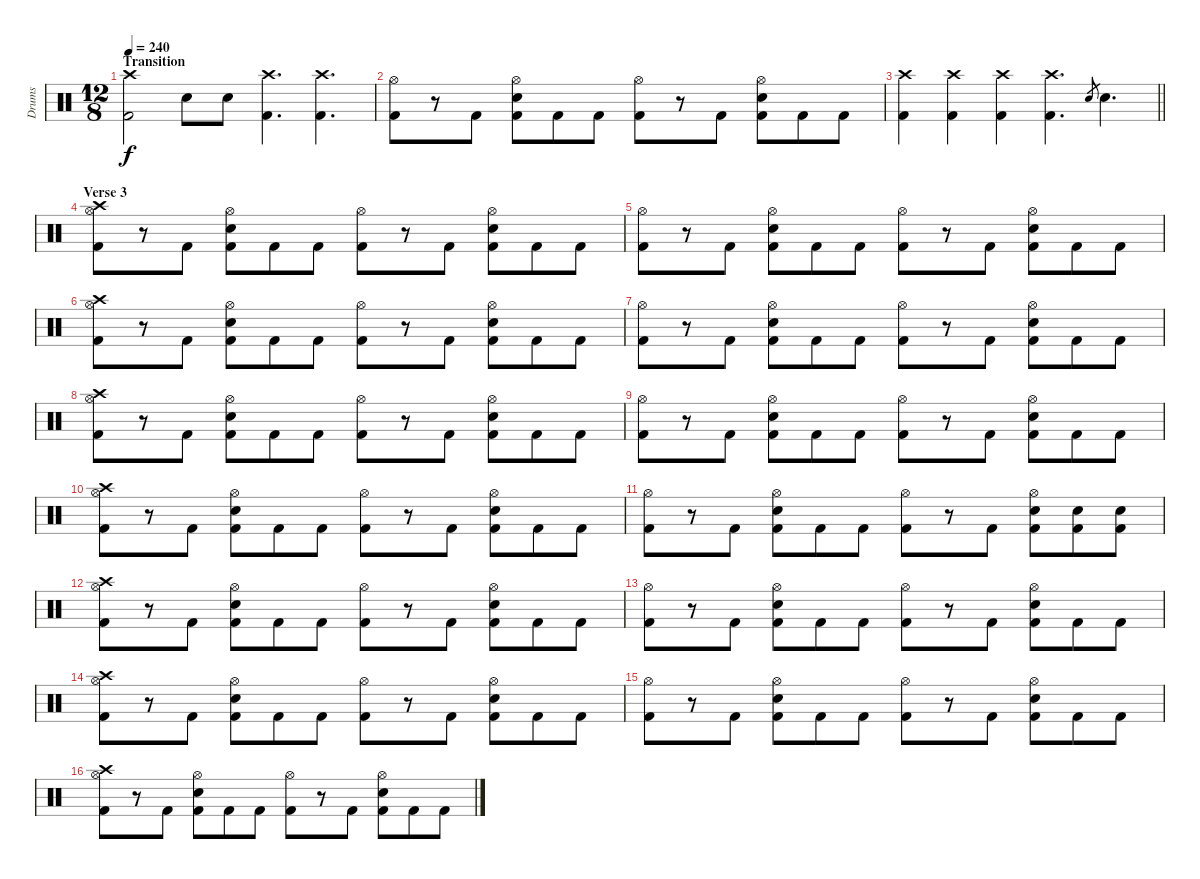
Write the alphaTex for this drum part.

\track ("Drums" "Drums") {instrument percussion}
\staff {score}
\articulation defaults
\ts (12 8)
\section ("" "Transition")
\tempo 240
\clef neutral
\ks c
("Crash high (hit)" "Kick (hit) 2").2{dy f} "Snare (hit) 2".8 "Snare (hit) 2".8 ("Crash high (hit)" "Kick (hit) 2").4{d} ("Crash high (hit)" "Kick (hit) 2").4{d} |
("Hi-Hat (open)" "Kick (hit) 2").8 r.8 "Kick (hit) 2".8 ("Hi-Hat (open)" "Snare (hit) 2" "Kick (hit) 2").8 "Kick (hit) 2".8 "Kick (hit) 2".8 ("Hi-Hat (open)" "Kick (hit) 2").8 r.8 "Kick (hit) 2".8 ("Hi-Hat (open)" "Snare (hit) 2" "Kick (hit) 2").8 "Kick (hit) 2".8 "Kick (hit) 2".8 |
\barLineRight lightlight
("Crash high (hit)" "Kick (hit) 2").4 ("Crash high (hit)" "Kick (hit) 2").4 ("Crash high (hit)" "Kick (hit) 2").4 ("Crash high (hit)" "Kick (hit) 2").4{d} "Snare (hit) 2".8{gr} "Snare (hit) 2".4{d} |
\section ("" "Verse 3")
("Crash high (hit)" "Hi-Hat (open)" "Kick (hit) 2").8 r.8 "Kick (hit) 2".8 ("Hi-Hat (open)" "Snare (hit) 2" "Kick (hit) 2").8 "Kick (hit) 2".8 "Kick (hit) 2".8 ("Hi-Hat (open)" "Kick (hit) 2").8 r.8 "Kick (hit) 2".8 ("Hi-Hat (open)" "Snare (hit) 2" "Kick (hit) 2").8 "Kick (hit) 2".8 "Kick (hit) 2".8 |
("Hi-Hat (open)" "Kick (hit) 2").8 r.8 "Kick (hit) 2".8 ("Hi-Hat (open)" "Snare (hit) 2" "Kick (hit) 2").8 "Kick (hit) 2".8 "Kick (hit) 2".8 ("Hi-Hat (open)" "Kick (hit) 2").8 r.8 "Kick (hit) 2".8 ("Hi-Hat (open)" "Snare (hit) 2" "Kick (hit) 2").8 "Kick (hit) 2".8 "Kick (hit) 2".8 |
("Crash high (hit)" "Hi-Hat (open)" "Kick (hit) 2").8 r.8 "Kick (hit) 2".8 ("Hi-Hat (open)" "Snare (hit) 2" "Kick (hit) 2").8 "Kick (hit) 2".8 "Kick (hit) 2".8 ("Hi-Hat (open)" "Kick (hit) 2").8 r.8 "Kick (hit) 2".8 ("Hi-Hat (open)" "Snare (hit) 2" "Kick (hit) 2").8 "Kick (hit) 2".8 "Kick (hit) 2".8 |
("Hi-Hat (open)" "Kick (hit) 2").8 r.8 "Kick (hit) 2".8 ("Hi-Hat (open)" "Snare (hit) 2" "Kick (hit) 2").8 "Kick (hit) 2".8 "Kick (hit) 2".8 ("Hi-Hat (open)" "Kick (hit) 2").8 r.8 "Kick (hit) 2".8 ("Hi-Hat (open)" "Snare (hit) 2" "Kick (hit) 2").8 "Kick (hit) 2".8 "Kick (hit) 2".8 |
("Crash high (hit)" "Hi-Hat (open)" "Kick (hit) 2").8 r.8 "Kick (hit) 2".8 ("Hi-Hat (open)" "Snare (hit) 2" "Kick (hit) 2").8 "Kick (hit) 2".8 "Kick (hit) 2".8 ("Hi-Hat (open)" "Kick (hit) 2").8 r.8 "Kick (hit) 2".8 ("Hi-Hat (open)" "Snare (hit) 2" "Kick (hit) 2").8 "Kick (hit) 2".8 "Kick (hit) 2".8 |
("Hi-Hat (open)" "Kick (hit) 2").8 r.8 "Kick (hit) 2".8 ("Hi-Hat (open)" "Snare (hit) 2" "Kick (hit) 2").8 "Kick (hit) 2".8 "Kick (hit) 2".8 ("Hi-Hat (open)" "Kick (hit) 2").8 r.8 "Kick (hit) 2".8 ("Hi-Hat (open)" "Snare (hit) 2" "Kick (hit) 2").8 "Kick (hit) 2".8 "Kick (hit) 2".8 |
("Crash high (hit)" "Hi-Hat (open)" "Kick (hit) 2").8 r.8 "Kick (hit) 2".8 ("Hi-Hat (open)" "Snare (hit) 2" "Kick (hit) 2").8 "Kick (hit) 2".8 "Kick (hit) 2".8 ("Hi-Hat (open)" "Kick (hit) 2").8 r.8 "Kick (hit) 2".8 ("Hi-Hat (open)" "Snare (hit) 2" "Kick (hit) 2").8 "Kick (hit) 2".8 "Kick (hit) 2".8 |
("Hi-Hat (open)" "Kick (hit) 2").8 r.8 "Kick (hit) 2".8 ("Hi-Hat (open)" "Snare (hit) 2" "Kick (hit) 2").8 "Kick (hit) 2".8 "Kick (hit) 2".8 ("Hi-Hat (open)" "Kick (hit) 2").8 r.8 "Kick (hit) 2".8 ("Hi-Hat (open)" "Snare (hit) 2" "Kick (hit) 2").8 ("Snare (hit) 2" "Kick (hit) 2").8 ("Snare (hit) 2" "Kick (hit) 2").8 |
("Crash high (hit)" "Hi-Hat (open)" "Kick (hit) 2").8 r.8 "Kick (hit) 2".8 ("Hi-Hat (open)" "Snare (hit) 2" "Kick (hit) 2").8 "Kick (hit) 2".8 "Kick (hit) 2".8 ("Hi-Hat (open)" "Kick (hit) 2").8 r.8 "Kick (hit) 2".8 ("Hi-Hat (open)" "Snare (hit) 2" "Kick (hit) 2").8 "Kick (hit) 2".8 "Kick (hit) 2".8 |
("Hi-Hat (open)" "Kick (hit) 2").8 r.8 "Kick (hit) 2".8 ("Hi-Hat (open)" "Snare (hit) 2" "Kick (hit) 2").8 "Kick (hit) 2".8 "Kick (hit) 2".8 ("Hi-Hat (open)" "Kick (hit) 2").8 r.8 "Kick (hit) 2".8 ("Hi-Hat (open)" "Snare (hit) 2" "Kick (hit) 2").8 "Kick (hit) 2".8 "Kick (hit) 2".8 |
("Crash high (hit)" "Hi-Hat (open)" "Kick (hit) 2").8 r.8 "Kick (hit) 2".8 ("Hi-Hat (open)" "Snare (hit) 2" "Kick (hit) 2").8 "Kick (hit) 2".8 "Kick (hit) 2".8 ("Hi-Hat (open)" "Kick (hit) 2").8 r.8 "Kick (hit) 2".8 ("Hi-Hat (open)" "Snare (hit) 2" "Kick (hit) 2").8 "Kick (hit) 2".8 "Kick (hit) 2".8 |
("Hi-Hat (open)" "Kick (hit) 2").8 r.8 "Kick (hit) 2".8 ("Hi-Hat (open)" "Snare (hit) 2" "Kick (hit) 2").8 "Kick (hit) 2".8 "Kick (hit) 2".8 ("Hi-Hat (open)" "Kick (hit) 2").8 r.8 "Kick (hit) 2".8 ("Hi-Hat (open)" "Snare (hit) 2" "Kick (hit) 2").8 "Kick (hit) 2".8 "Kick (hit) 2".8 |
("Crash high (hit)" "Hi-Hat (open)" "Kick (hit) 2").8 r.8 "Kick (hit) 2".8 ("Hi-Hat (open)" "Snare (hit) 2" "Kick (hit) 2").8 "Kick (hit) 2".8 "Kick (hit) 2".8 ("Hi-Hat (open)" "Kick (hit) 2").8 r.8 "Kick (hit) 2".8 ("Hi-Hat (open)" "Snare (hit) 2" "Kick (hit) 2").8 "Kick (hit) 2".8 "Kick (hit) 2".8
